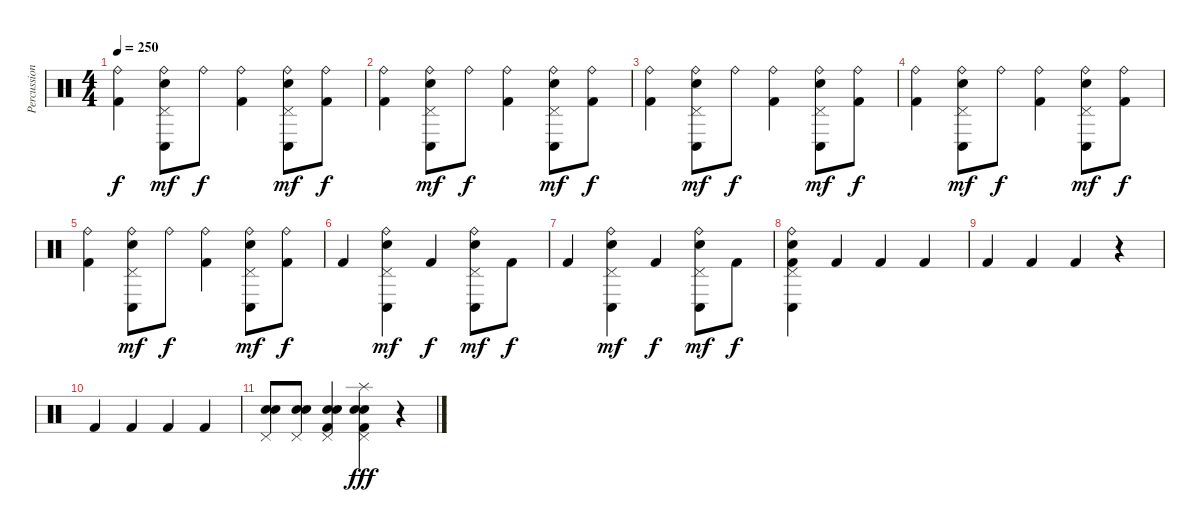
\track ("Percussion" "Percussion") {instrument percussion}
\staff {score}
\articulation defaults
\ts (4 4)
\tempo 250
\clef neutral
\ks c
("Ride (bell)" "Kick (hit) 2").4{dy f} ("Ride (bell)" "Pedal Hi-Hat (hit)" "Conga low (hit)" "Electric Snare (hit)").8{dy mf} "Ride (bell)".8{dy f} ("Ride (bell)" "Kick (hit) 2").4 ("Ride (bell)" "Pedal Hi-Hat (hit)" "Conga low (hit)" "Electric Snare (hit)").8{dy mf} ("Ride (bell)" "Kick (hit) 2").8{dy f} |
("Ride (bell)" "Kick (hit) 2").4 ("Ride (bell)" "Pedal Hi-Hat (hit)" "Conga low (hit)" "Electric Snare (hit)").8{dy mf} "Ride (bell)".8{dy f} ("Ride (bell)" "Kick (hit) 2").4 ("Ride (bell)" "Pedal Hi-Hat (hit)" "Conga low (hit)" "Electric Snare (hit)").8{dy mf} ("Ride (bell)" "Kick (hit) 2").8{dy f} |
("Ride (bell)" "Kick (hit) 2").4 ("Ride (bell)" "Pedal Hi-Hat (hit)" "Conga low (hit)" "Electric Snare (hit)").8{dy mf} "Ride (bell)".8{dy f} ("Ride (bell)" "Kick (hit) 2").4 ("Ride (bell)" "Pedal Hi-Hat (hit)" "Conga low (hit)" "Electric Snare (hit)").8{dy mf} ("Ride (bell)" "Kick (hit) 2").8{dy f} |
("Ride (bell)" "Kick (hit) 2").4 ("Ride (bell)" "Pedal Hi-Hat (hit)" "Conga low (hit)" "Electric Snare (hit)").8{dy mf} "Ride (bell)".8{dy f} ("Ride (bell)" "Kick (hit) 2").4 ("Ride (bell)" "Pedal Hi-Hat (hit)" "Conga low (hit)" "Electric Snare (hit)").8{dy mf} ("Ride (bell)" "Kick (hit) 2").8{dy f} |
("Ride (bell)" "Kick (hit) 2").4 ("Ride (bell)" "Pedal Hi-Hat (hit)" "Conga low (hit)" "Electric Snare (hit)").8{dy mf} "Ride (bell)".8{dy f} ("Ride (bell)" "Kick (hit) 2").4 ("Ride (bell)" "Pedal Hi-Hat (hit)" "Conga low (hit)" "Electric Snare (hit)").8{dy mf} ("Ride (bell)" "Kick (hit) 2").8{dy f} |
"Kick (hit) 2".4 ("Ride (bell)" "Pedal Hi-Hat (hit)" "Conga low (hit)" "Electric Snare (hit)").4{dy mf} "Kick (hit) 2".4{dy f} ("Ride (bell)" "Pedal Hi-Hat (hit)" "Conga low (hit)" "Electric Snare (hit)").8{dy mf} "Kick (hit) 2".8{dy f} |
"Kick (hit) 2".4 ("Ride (bell)" "Pedal Hi-Hat (hit)" "Conga low (hit)" "Electric Snare (hit)").4{dy mf} "Kick (hit) 2".4{dy f} ("Ride (bell)" "Pedal Hi-Hat (hit)" "Conga low (hit)" "Electric Snare (hit)").8{dy mf} "Kick (hit) 2".8{dy f} |
("Ride (bell)" "Pedal Hi-Hat (hit)" "Conga low (hit)" "Electric Snare (hit)" "Kick (hit) 2").4 "Kick (hit) 2".4 "Kick (hit) 2".4 "Kick (hit) 2".4 |
"Kick (hit) 2".4 "Kick (hit) 2".4 "Kick (hit) 2".4 r.4 |
"Kick (hit) 2".4 "Kick (hit) 2".4 "Kick (hit) 2".4 "Kick (hit) 2".4 |
("Pedal Hi-Hat (hit)" "Snare (hit) 2" "Electric Snare (hit)").8 ("Pedal Hi-Hat (hit)" "Snare (hit) 2" "Electric Snare (hit)").8 ("Pedal Hi-Hat (hit)" "Snare (hit) 2" "Electric Snare (hit)" "Kick (hit) 2").4 ("Splash (hit)" "Pedal Hi-Hat (hit)" "Snare (hit) 2" "Electric Snare (hit)" "Kick (hit) 2").4{dy fff} r.4
